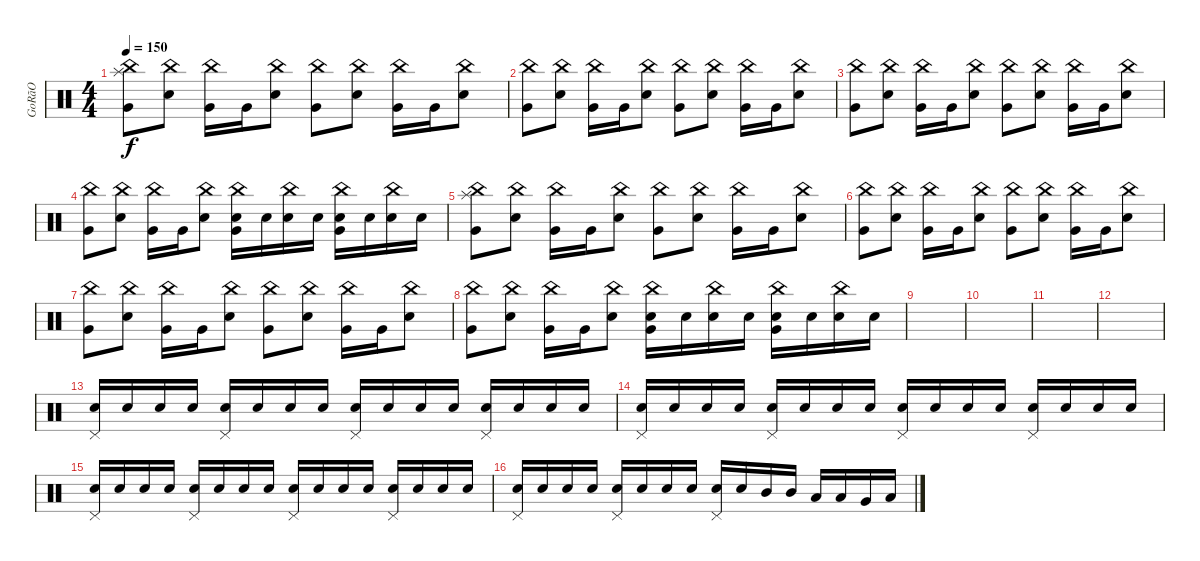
\track ("GoRãO" "GoRãO") {instrument percussion}
\staff {score}
\articulation defaults
\ts (4 4)
\tempo 150
\clef neutral
\ks c
("Very Low Tom (hit)" "Splash (hit)" "China (hit)").8{dy f} ("Electric Snare (hit)" "China (hit)").8 ("Very Low Tom (hit)" "China (hit)").16 "Very Low Tom (hit)".16 ("Electric Snare (hit)" "China (hit)").8 ("Very Low Tom (hit)" "China (hit)").8 ("Electric Snare (hit)" "China (hit)").8 ("Very Low Tom (hit)" "China (hit)").16 "Very Low Tom (hit)".16 ("Electric Snare (hit)" "China (hit)").8 |
("Very Low Tom (hit)" "China (hit)").8 ("Electric Snare (hit)" "China (hit)").8 ("Very Low Tom (hit)" "China (hit)").16 "Very Low Tom (hit)".16 ("Electric Snare (hit)" "China (hit)").8 ("Very Low Tom (hit)" "China (hit)").8 ("Electric Snare (hit)" "China (hit)").8 ("Very Low Tom (hit)" "China (hit)").16 "Very Low Tom (hit)".16 ("Electric Snare (hit)" "China (hit)").8 |
("Very Low Tom (hit)" "China (hit)").8 ("Electric Snare (hit)" "China (hit)").8 ("Very Low Tom (hit)" "China (hit)").16 "Very Low Tom (hit)".16 ("Electric Snare (hit)" "China (hit)").8 ("Very Low Tom (hit)" "China (hit)").8 ("Electric Snare (hit)" "China (hit)").8 ("Very Low Tom (hit)" "China (hit)").16 "Very Low Tom (hit)".16 ("Electric Snare (hit)" "China (hit)").8 |
("Very Low Tom (hit)" "China (hit)").8 ("Electric Snare (hit)" "China (hit)").8 ("Very Low Tom (hit)" "China (hit)").16 "Very Low Tom (hit)".16 ("Electric Snare (hit)" "China (hit)").8 ("Snare (hit) 2" "Very Low Tom (hit)" "China (hit)").16 "Snare (hit) 2".16 ("Snare (hit) 2" "China (hit)").16 "Snare (hit) 2".16 ("Snare (hit) 2" "Very Low Tom (hit)" "China (hit)").16 "Snare (hit) 2".16 ("Snare (hit) 2" "China (hit)").16 "Snare (hit) 2".16 |
("Very Low Tom (hit)" "Splash (hit)" "China (hit)").8 ("Electric Snare (hit)" "China (hit)").8 ("Very Low Tom (hit)" "China (hit)").16 "Very Low Tom (hit)".16 ("Electric Snare (hit)" "China (hit)").8 ("Very Low Tom (hit)" "China (hit)").8 ("Electric Snare (hit)" "China (hit)").8 ("Very Low Tom (hit)" "China (hit)").16 "Very Low Tom (hit)".16 ("Electric Snare (hit)" "China (hit)").8 |
("Very Low Tom (hit)" "China (hit)").8 ("Electric Snare (hit)" "China (hit)").8 ("Very Low Tom (hit)" "China (hit)").16 "Very Low Tom (hit)".16 ("Electric Snare (hit)" "China (hit)").8 ("Very Low Tom (hit)" "China (hit)").8 ("Electric Snare (hit)" "China (hit)").8 ("Very Low Tom (hit)" "China (hit)").16 "Very Low Tom (hit)".16 ("Electric Snare (hit)" "China (hit)").8 |
("Very Low Tom (hit)" "China (hit)").8 ("Electric Snare (hit)" "China (hit)").8 ("Very Low Tom (hit)" "China (hit)").16 "Very Low Tom (hit)".16 ("Electric Snare (hit)" "China (hit)").8 ("Very Low Tom (hit)" "China (hit)").8 ("Electric Snare (hit)" "China (hit)").8 ("Very Low Tom (hit)" "China (hit)").16 "Very Low Tom (hit)".16 ("Electric Snare (hit)" "China (hit)").8 |
("Very Low Tom (hit)" "China (hit)").8 ("Electric Snare (hit)" "China (hit)").8 ("Very Low Tom (hit)" "China (hit)").16 "Very Low Tom (hit)".16 ("Electric Snare (hit)" "China (hit)").8 ("Snare (hit) 2" "Very Low Tom (hit)" "China (hit)").16 "Snare (hit) 2".16 ("Snare (hit) 2" "China (hit)").16 "Snare (hit) 2".16 ("Snare (hit) 2" "Very Low Tom (hit)" "China (hit)").16 "Snare (hit) 2".16 ("Snare (hit) 2" "China (hit)").16 "Snare (hit) 2".16 |
|
|
|
|
("Pedal Hi-Hat (hit)" "Snare (hit) 2").16 "Snare (hit) 2".16 "Snare (hit) 2".16 "Snare (hit) 2".16 ("Pedal Hi-Hat (hit)" "Snare (hit) 2").16 "Snare (hit) 2".16 "Snare (hit) 2".16 "Snare (hit) 2".16 ("Pedal Hi-Hat (hit)" "Snare (hit) 2").16 "Snare (hit) 2".16 "Snare (hit) 2".16 "Snare (hit) 2".16 ("Pedal Hi-Hat (hit)" "Snare (hit) 2").16 "Snare (hit) 2".16 "Snare (hit) 2".16 "Snare (hit) 2".16 |
("Pedal Hi-Hat (hit)" "Snare (hit) 2").16 "Snare (hit) 2".16 "Snare (hit) 2".16 "Snare (hit) 2".16 ("Pedal Hi-Hat (hit)" "Snare (hit) 2").16 "Snare (hit) 2".16 "Snare (hit) 2".16 "Snare (hit) 2".16 ("Pedal Hi-Hat (hit)" "Snare (hit) 2").16 "Snare (hit) 2".16 "Snare (hit) 2".16 "Snare (hit) 2".16 ("Pedal Hi-Hat (hit)" "Snare (hit) 2").16 "Snare (hit) 2".16 "Snare (hit) 2".16 "Snare (hit) 2".16 |
("Pedal Hi-Hat (hit)" "Snare (hit) 2").16 "Snare (hit) 2".16 "Snare (hit) 2".16 "Snare (hit) 2".16 ("Pedal Hi-Hat (hit)" "Snare (hit) 2").16 "Snare (hit) 2".16 "Snare (hit) 2".16 "Snare (hit) 2".16 ("Pedal Hi-Hat (hit)" "Snare (hit) 2").16 "Snare (hit) 2".16 "Snare (hit) 2".16 "Snare (hit) 2".16 ("Pedal Hi-Hat (hit)" "Snare (hit) 2").16 "Snare (hit) 2".16 "Snare (hit) 2".16 "Snare (hit) 2".16 |
("Pedal Hi-Hat (hit)" "Snare (hit) 2").16 "Snare (hit) 2".16 "Snare (hit) 2".16 "Snare (hit) 2".16 ("Pedal Hi-Hat (hit)" "Snare (hit) 2").16 "Snare (hit) 2".16 "Snare (hit) 2".16 "Snare (hit) 2".16 ("Pedal Hi-Hat (hit)" "Snare (hit) 2").16 "Snare (hit) 2".16 "Mid Tom (hit)".16 "Mid Tom (hit)".16 "Low Tom (hit)".16 "Low Tom (hit)".16 "Very Low Tom (hit)".16 "Low Floor Tom (hit)".16
